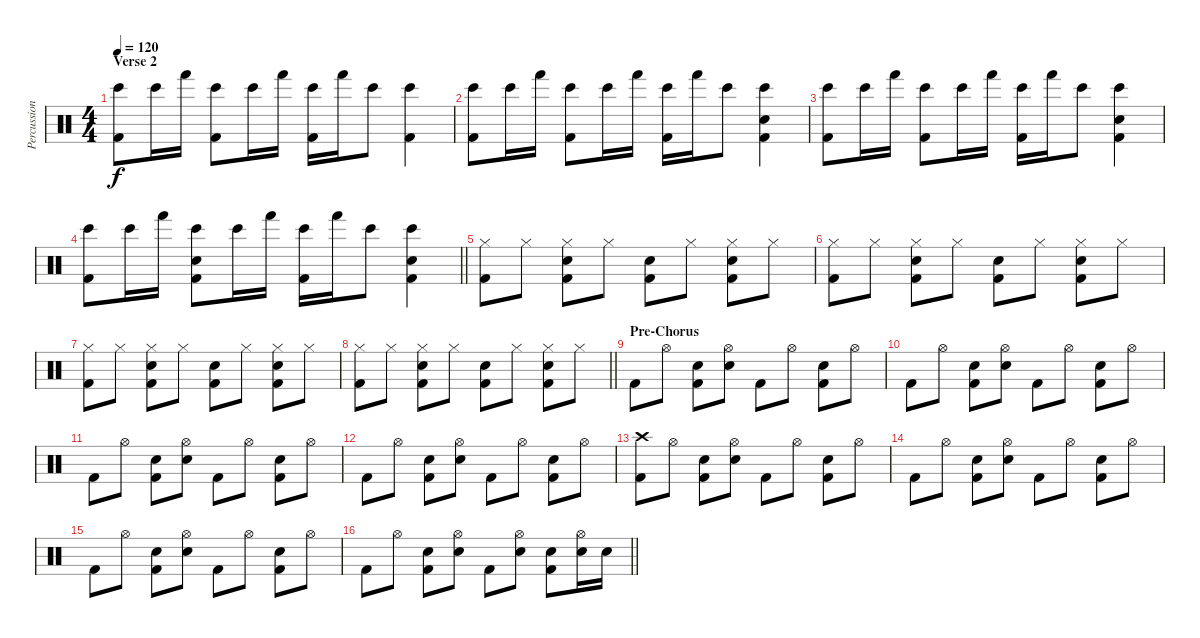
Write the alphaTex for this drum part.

\track ("Percussion" "Percussion") {instrument percussion}
\staff {score}
\articulation defaults
\ts (4 4)
\section ("" "Verse 2")
\tempo 120
\clef neutral
\ks c
("Bongo High (hit)" "Kick (hit) 2").8{dy f} "Bongo High (hit)".16 "Hand (hit)".16 ("Bongo High (hit)" "Kick (hit) 2").8 "Bongo High (hit)".16 "Hand (hit)".16 ("Bongo High (hit)" "Kick (hit) 2").16 "Hand (hit)".16 "Bongo High (hit)".8 ("Bongo High (hit)" "Kick (hit) 2").4 |
("Bongo High (hit)" "Kick (hit) 2").8 "Bongo High (hit)".16 "Hand (hit)".16 ("Bongo High (hit)" "Kick (hit) 2").8 "Bongo High (hit)".16 "Hand (hit)".16 ("Bongo High (hit)" "Kick (hit) 2").16 "Hand (hit)".16 "Bongo High (hit)".8 ("Bongo High (hit)" "Electric Snare (hit)" "Kick (hit) 2").4 |
("Bongo High (hit)" "Kick (hit) 2").8 "Bongo High (hit)".16 "Hand (hit)".16 ("Bongo High (hit)" "Kick (hit) 2").8 "Bongo High (hit)".16 "Hand (hit)".16 ("Bongo High (hit)" "Kick (hit) 2").16 "Hand (hit)".16 "Bongo High (hit)".8 ("Bongo High (hit)" "Electric Snare (hit)" "Kick (hit) 2").4 |
\barLineRight lightlight
("Bongo High (hit)" "Kick (hit) 2").8 "Bongo High (hit)".16 "Hand (hit)".16 ("Bongo High (hit)" "Electric Snare (hit)" "Kick (hit) 2").8 "Bongo High (hit)".16 "Hand (hit)".16 ("Bongo High (hit)" "Kick (hit) 2").16 "Hand (hit)".16 "Bongo High (hit)".8 ("Bongo High (hit)" "Electric Snare (hit)" "Kick (hit) 2").4 |
("Hi-Hat (closed)" "Kick (hit) 2").8 "Hi-Hat (closed)".8 ("Hi-Hat (closed)" "Electric Snare (hit)" "Kick (hit) 2").8 "Hi-Hat (closed)".8 ("Snare (hit)" "Kick (hit) 2").8 "Hi-Hat (closed)".8 ("Hi-Hat (closed)" "Electric Snare (hit)" "Kick (hit) 2").8 "Hi-Hat (closed)".8 |
("Hi-Hat (closed)" "Kick (hit) 2").8 "Hi-Hat (closed)".8 ("Hi-Hat (closed)" "Electric Snare (hit)" "Kick (hit) 2").8 "Hi-Hat (closed)".8 ("Snare (hit)" "Kick (hit) 2").8 "Hi-Hat (closed)".8 ("Hi-Hat (closed)" "Electric Snare (hit)" "Kick (hit) 2").8 "Hi-Hat (closed)".8 |
("Hi-Hat (closed)" "Kick (hit) 2").8 "Hi-Hat (closed)".8 ("Hi-Hat (closed)" "Electric Snare (hit)" "Kick (hit) 2").8 "Hi-Hat (closed)".8 ("Snare (hit)" "Kick (hit) 2").8 "Hi-Hat (closed)".8 ("Hi-Hat (closed)" "Electric Snare (hit)" "Kick (hit) 2").8 "Hi-Hat (closed)".8 |
\barLineRight lightlight
("Hi-Hat (closed)" "Kick (hit) 2").8 "Hi-Hat (closed)".8 ("Hi-Hat (closed)" "Electric Snare (hit)" "Kick (hit) 2").8 "Hi-Hat (closed)".8 ("Snare (hit)" "Kick (hit) 2").8 "Hi-Hat (closed)".8 ("Hi-Hat (closed)" "Electric Snare (hit)" "Kick (hit) 2").8 "Hi-Hat (closed)".8 |
\section ("" "Pre-Chorus")
"Kick (hit) 2".8 "Hi-Hat (open)".8 ("Electric Snare (hit)" "Kick (hit) 2").8 ("Hi-Hat (open)" "Electric Snare (hit)").8 "Kick (hit) 2".8 "Hi-Hat (open)".8 ("Electric Snare (hit)" "Kick (hit) 2").8 "Hi-Hat (open)".8 |
"Kick (hit) 2".8 "Hi-Hat (open)".8 ("Electric Snare (hit)" "Kick (hit) 2").8 ("Hi-Hat (open)" "Electric Snare (hit)").8 "Kick (hit) 2".8 "Hi-Hat (open)".8 ("Electric Snare (hit)" "Kick (hit) 2").8 "Hi-Hat (open)".8 |
"Kick (hit) 2".8 "Hi-Hat (open)".8 ("Electric Snare (hit)" "Kick (hit) 2").8 ("Hi-Hat (open)" "Electric Snare (hit)").8 "Kick (hit) 2".8 "Hi-Hat (open)".8 ("Electric Snare (hit)" "Kick (hit) 2").8 "Hi-Hat (open)".8 |
"Kick (hit) 2".8 "Hi-Hat (open)".8 ("Electric Snare (hit)" "Kick (hit) 2").8 ("Hi-Hat (open)" "Electric Snare (hit)").8 "Kick (hit) 2".8 "Hi-Hat (open)".8 ("Electric Snare (hit)" "Kick (hit) 2").8 "Hi-Hat (open)".8 |
("Crash high (hit)" "Kick (hit) 2").8 "Hi-Hat (open)".8 ("Electric Snare (hit)" "Kick (hit) 2").8 ("Hi-Hat (open)" "Electric Snare (hit)").8 "Kick (hit) 2".8 "Hi-Hat (open)".8 ("Electric Snare (hit)" "Kick (hit) 2").8 "Hi-Hat (open)".8 |
"Kick (hit) 2".8 "Hi-Hat (open)".8 ("Electric Snare (hit)" "Kick (hit) 2").8 ("Hi-Hat (open)" "Electric Snare (hit)").8 "Kick (hit) 2".8 "Hi-Hat (open)".8 ("Electric Snare (hit)" "Kick (hit) 2").8 "Hi-Hat (open)".8 |
"Kick (hit) 2".8 "Hi-Hat (open)".8 ("Electric Snare (hit)" "Kick (hit) 2").8 ("Hi-Hat (open)" "Electric Snare (hit)").8 "Kick (hit) 2".8 "Hi-Hat (open)".8 ("Electric Snare (hit)" "Kick (hit) 2").8 "Hi-Hat (open)".8 |
\barLineRight lightlight "Kick (hit) 2".8 "Hi-Hat (open)".8
("Electric Snare (hit)" "Kick (hit) 2").8 ("Hi-Hat (open)" "Electric Snare (hit)").8 "Kick (hit) 2".8 ("Hi-Hat (open)" "Electric Snare (hit)").8 ("Electric Snare (hit)" "Kick (hit) 2").8 ("Hi-Hat (open)" "Electric Snare (hit)").16 "Electric Snare (hit)".16
